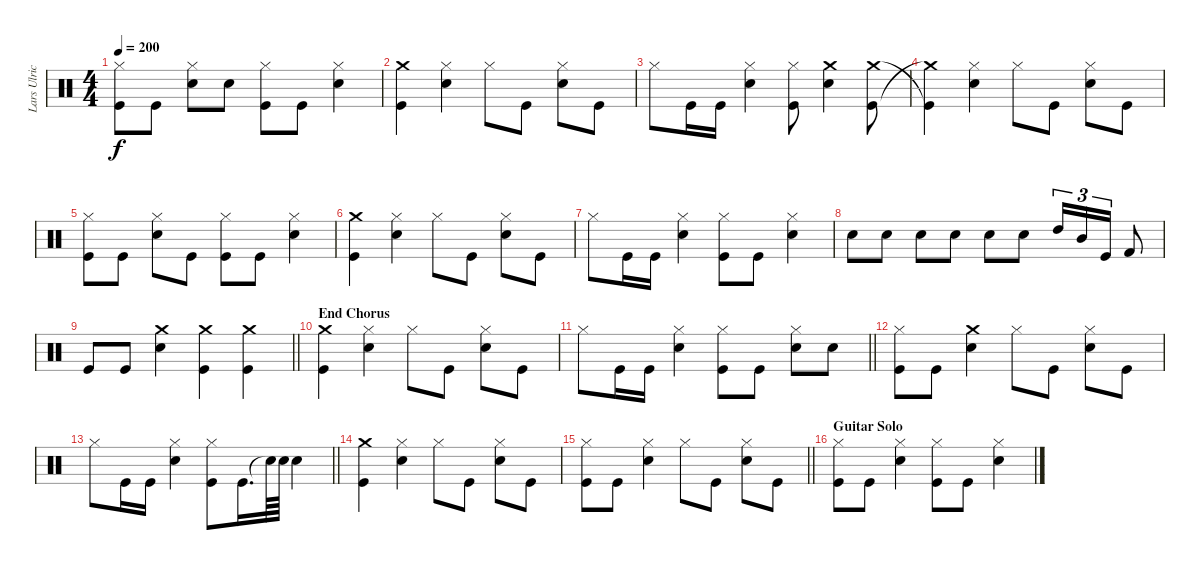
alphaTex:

\track ("Lars Ulrich (Drums)" "Lars Ulric") {instrument percussion}
\staff {score}
\articulation defaults
\ts (4 4)
\tempo 200
\clef neutral
\ks c
("Kick (hit)" "Hi-Hat (closed)").8{dy f} "Kick (hit)".8 ("Snare (hit) 2" "Hi-Hat (closed)").8 "Snare (hit) 2".8 ("Kick (hit)" "Hi-Hat (closed)").8 "Kick (hit)".8 ("Snare (hit) 2" "Hi-Hat (closed)").4 |
("Kick (hit)" "Crash medium (hit)").4 ("Hi-Hat (closed)" "Snare (hit) 2").4 "Hi-Hat (closed)".8 "Kick (hit)".8 ("Snare (hit) 2" "Hi-Hat (closed)").8 "Kick (hit)".8 |
"Hi-Hat (closed)".8 "Kick (hit)".16 "Kick (hit)".16 ("Snare (hit) 2" "Hi-Hat (closed)").4 ("Kick (hit)" "Hi-Hat (closed)").8 ("Snare (hit) 2" "Crash medium (hit)").4 ("Crash medium (hit)" "Kick (hit)").8 |
("Kick (hit)"{t} "Crash medium (hit)"{t}).4 ("Hi-Hat (closed)" "Snare (hit) 2").4 "Hi-Hat (closed)".8 "Kick (hit)".8 ("Snare (hit) 2" "Hi-Hat (closed)").8 "Kick (hit)".8 |
("Hi-Hat (closed)" "Kick (hit)").8 "Kick (hit)".8 ("Snare (hit) 2" "Hi-Hat (closed)").8 "Kick (hit)".8 ("Hi-Hat (closed)" "Kick (hit)").8 "Kick (hit)".8 ("Snare (hit) 2" "Hi-Hat (closed)").4 |
("Kick (hit)" "Crash medium (hit)").4 ("Hi-Hat (closed)" "Snare (hit) 2").4 "Hi-Hat (closed)".8 "Kick (hit)".8 ("Snare (hit) 2" "Hi-Hat (closed)").8 "Kick (hit)".8 |
"Hi-Hat (closed)".8 "Kick (hit)".16 "Kick (hit)".16 ("Snare (hit) 2" "Hi-Hat (closed)").4 ("Kick (hit)" "Hi-Hat (closed)").8 "Kick (hit)".8 ("Snare (hit) 2" "Hi-Hat (closed)").4 |
"Snare (hit) 2".8 "Snare (hit) 2".8 "Snare (hit) 2".8 "Snare (hit) 2".8 "Snare (hit) 2".8 "Snare (hit) 2".8 "High Tom (hit)".16{tu (3 2)} "Mid Tom (hit)".16{tu (3 2)} "Kick (hit)".16{tu (3 2)} "Kick (hit) 2".8 |
\barLineRight lightlight "Kick (hit)".8 "Kick (hit)".8
("Crash medium (hit)" "Snare (hit) 2").4 ("Crash medium (hit)" "Kick (hit)").4 ("Crash medium (hit)" "Kick (hit)").4 |
\section ("" "End Chorus")
("Kick (hit)" "Crash medium (hit)").4 ("Hi-Hat (closed)" "Snare (hit) 2").4 "Hi-Hat (closed)".8 "Kick (hit)".8 ("Snare (hit) 2" "Hi-Hat (closed)").8 "Kick (hit)".8 |
\barLineRight lightlight "Hi-Hat (closed)".8 "Kick (hit)".16 "Kick (hit)".16
("Snare (hit) 2" "Hi-Hat (closed)").4 ("Hi-Hat (closed)" "Kick (hit)").8 "Kick (hit)".8 ("Snare (hit) 2" "Hi-Hat (closed)").8 "Snare (hit) 2".8 |
("Hi-Hat (closed)" "Kick (hit)").8 "Kick (hit)".8 ("Crash medium (hit)" "Snare (hit) 2").4 "Hi-Hat (closed)".8 "Kick (hit)".8 ("Snare (hit) 2" "Hi-Hat (closed)").8 "Kick (hit)".8 |
\barLineRight lightlight "Hi-Hat (closed)".8 "Kick (hit)".16 "Kick (hit)".16
("Snare (hit) 2" "Hi-Hat (closed)").4 ("Hi-Hat (closed)" "Kick (hit)").8 "Kick (hit)".16{d} "Snare (hit)"{t}.64 "Snare (hit) 2".64 "Snare (hit) 2".4 |
("Kick (hit)" "Crash medium (hit)").4 ("Hi-Hat (closed)" "Snare (hit) 2").4 "Hi-Hat (closed)".8 "Kick (hit)".8 ("Snare (hit) 2" "Hi-Hat (closed)").8 "Kick (hit)".8 |
\barLineRight lightlight
("Kick (hit)" "Hi-Hat (closed)").8 "Kick (hit)".8 ("Snare (hit) 2" "Hi-Hat (closed)").4 "Hi-Hat (closed)".8 "Kick (hit)".8 ("Snare (hit) 2" "Hi-Hat (closed)").8 "Kick (hit)".8 |
\section ("" "Guitar Solo")
("Kick (hit)" "Hi-Hat (closed)").8 "Kick (hit)".8 ("Snare (hit) 2" "Hi-Hat (closed)").4 ("Kick (hit)" "Hi-Hat (closed)").8 "Kick (hit)".8 ("Snare (hit) 2" "Hi-Hat (closed)").4
